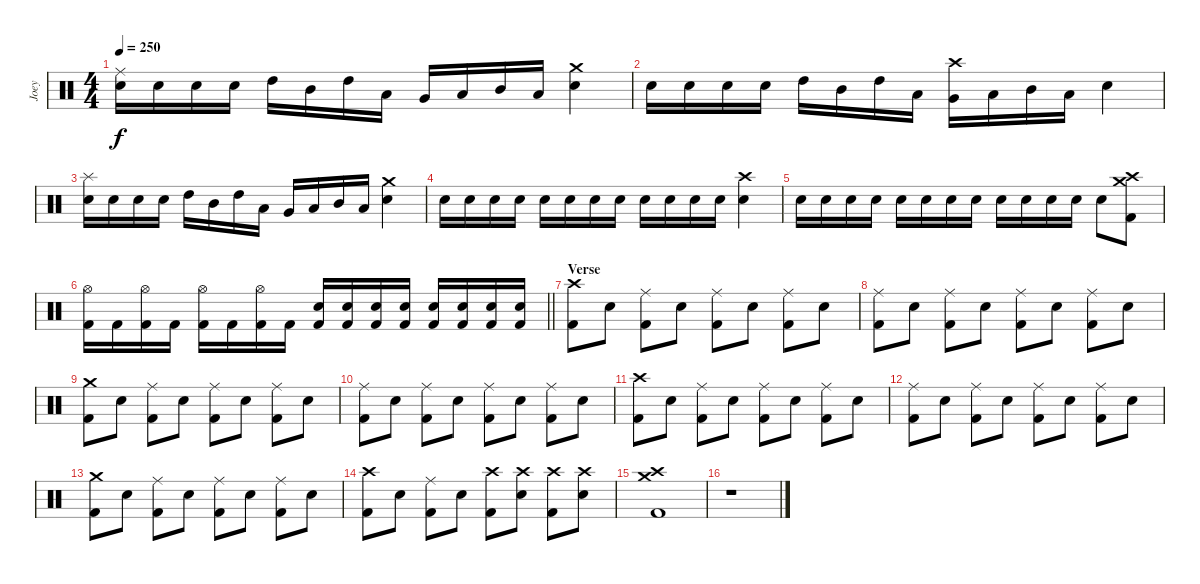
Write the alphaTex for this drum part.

\track ("Joey" "Joey") {instrument percussion}
\staff {score}
\articulation defaults
\ts (4 4)
\tempo 250
\clef neutral
\ks c
("Ride (middle)" "Snare (hit) 2").16{dy f} "Snare (hit) 2".16 "Snare (hit) 2".16 "Snare (hit) 2".16 "High Tom (hit)".16 "Mid Tom (hit)".16 "High Tom (hit)".16 "Low Tom (hit)".16 "Very Low Tom (hit)".16 "Low Floor Tom (hit)".16 "Mid Tom (hit)".16 "Low Floor Tom (hit)".16 ("Crash medium (hit)" "Snare (hit) 2").4 |
"Snare (hit) 2".16 "Snare (hit) 2".16 "Snare (hit) 2".16 "Snare (hit) 2".16 "High Tom (hit)".16 "Mid Tom (hit)".16 "High Tom (hit)".16 "Low Tom (hit)".16 ("Crash high (hit)" "Very Low Tom (hit)").16 "Low Floor Tom (hit)".16 "Mid Tom (hit)".16 "Low Floor Tom (hit)".16 "Snare (hit) 2".4 |
("Splash (hit)" "Snare (hit) 2").16 "Snare (hit) 2".16 "Snare (hit) 2".16 "Snare (hit) 2".16 "High Tom (hit)".16 "Mid Tom (hit)".16 "High Tom (hit)".16 "Low Tom (hit)".16 "Very Low Tom (hit)".16 "Low Floor Tom (hit)".16 "Mid Tom (hit)".16 "Low Floor Tom (hit)".16 ("Crash medium (hit)" "Snare (hit) 2").4 |
"Snare (hit) 2".16 "Snare (hit) 2".16 "Snare (hit) 2".16 "Snare (hit) 2".16 "Snare (hit) 2".16 "Snare (hit) 2".16 "Snare (hit) 2".16 "Snare (hit) 2".16 "Snare (hit) 2".16 "Snare (hit) 2".16 "Snare (hit) 2".16 "Snare (hit) 2".16 ("Crash high (hit)" "Snare (hit) 2").4 |
"Snare (hit) 2".16 "Snare (hit) 2".16 "Snare (hit) 2".16 "Snare (hit) 2".16 "Snare (hit) 2".16 "Snare (hit) 2".16 "Snare (hit) 2".16 "Snare (hit) 2".16 "Snare (hit) 2".16 "Snare (hit) 2".16 "Snare (hit) 2".16 "Snare (hit) 2".16 "Snare (hit) 2".8 ("Crash medium (hit)" "Crash high (hit)" "Kick (hit) 2").8 |
\barLineRight lightlight
("Hi-Hat (open)" "Kick (hit) 2").16 "Kick (hit) 2".16 ("Hi-Hat (open)" "Kick (hit) 2").16 "Kick (hit) 2".16 ("Hi-Hat (open)" "Kick (hit) 2").16 "Kick (hit) 2".16 ("Hi-Hat (open)" "Kick (hit) 2").16 "Kick (hit) 2".16 ("Snare (hit) 2" "Kick (hit) 2").16 ("Snare (hit) 2" "Kick (hit) 2").16 ("Snare (hit) 2" "Kick (hit) 2").16 ("Snare (hit) 2" "Kick (hit) 2").16 ("Snare (hit) 2" "Kick (hit) 2").16 ("Snare (hit) 2" "Kick (hit) 2").16 ("Snare (hit) 2" "Kick (hit) 2").16 ("Snare (hit) 2" "Kick (hit) 2").16 |
\section ("" "Verse")
("Crash high (hit)" "Kick (hit) 2").8 "Snare (hit) 2".8 ("Ride (middle)" "Kick (hit) 2").8 "Snare (hit) 2".8 ("Ride (middle)" "Kick (hit) 2").8 "Snare (hit) 2".8 ("Ride (middle)" "Kick (hit) 2").8 "Snare (hit) 2".8 |
("Ride (middle)" "Kick (hit) 2").8 "Snare (hit) 2".8 ("Ride (middle)" "Kick (hit) 2").8 "Snare (hit) 2".8 ("Ride (middle)" "Kick (hit) 2").8 "Snare (hit) 2".8 ("Ride (middle)" "Kick (hit) 2").8 "Snare (hit) 2".8 |
("Crash medium (hit)" "Kick (hit) 2").8 "Snare (hit) 2".8 ("Ride (middle)" "Kick (hit) 2").8 "Snare (hit) 2".8 ("Ride (middle)" "Kick (hit) 2").8 "Snare (hit) 2".8 ("Ride (middle)" "Kick (hit) 2").8 "Snare (hit) 2".8 |
("Ride (middle)" "Kick (hit) 2").8 "Snare (hit) 2".8 ("Ride (middle)" "Kick (hit) 2").8 "Snare (hit) 2".8 ("Ride (middle)" "Kick (hit) 2").8 "Snare (hit) 2".8 ("Ride (middle)" "Kick (hit) 2").8 "Snare (hit) 2".8 |
("Crash high (hit)" "Kick (hit) 2").8 "Snare (hit) 2".8 ("Ride (middle)" "Kick (hit) 2").8 "Snare (hit) 2".8 ("Ride (middle)" "Kick (hit) 2").8 "Snare (hit) 2".8 ("Ride (middle)" "Kick (hit) 2").8 "Snare (hit) 2".8 |
("Ride (middle)" "Kick (hit) 2").8 "Snare (hit) 2".8 ("Ride (middle)" "Kick (hit) 2").8 "Snare (hit) 2".8 ("Ride (middle)" "Kick (hit) 2").8 "Snare (hit) 2".8 ("Ride (middle)" "Kick (hit) 2").8 "Snare (hit) 2".8 |
("Crash medium (hit)" "Kick (hit) 2").8 "Snare (hit) 2".8 ("Ride (middle)" "Kick (hit) 2").8 "Snare (hit) 2".8 ("Ride (middle)" "Kick (hit) 2").8 "Snare (hit) 2".8 ("Ride (middle)" "Kick (hit) 2").8 "Snare (hit) 2".8 |
("Crash high (hit)" "Kick (hit) 2").8 "Snare (hit) 2".8 ("Ride (middle)" "Kick (hit) 2").8 "Snare (hit) 2".8 ("Crash high (hit)" "Kick (hit) 2").8 ("Crash high (hit)" "Snare (hit) 2").8 ("Crash high (hit)" "Kick (hit) 2").8 ("Crash high (hit)" "Snare (hit) 2").8 |
("Crash high (hit)" "Crash medium (hit)" "Kick (hit) 2").1 |
r.1
